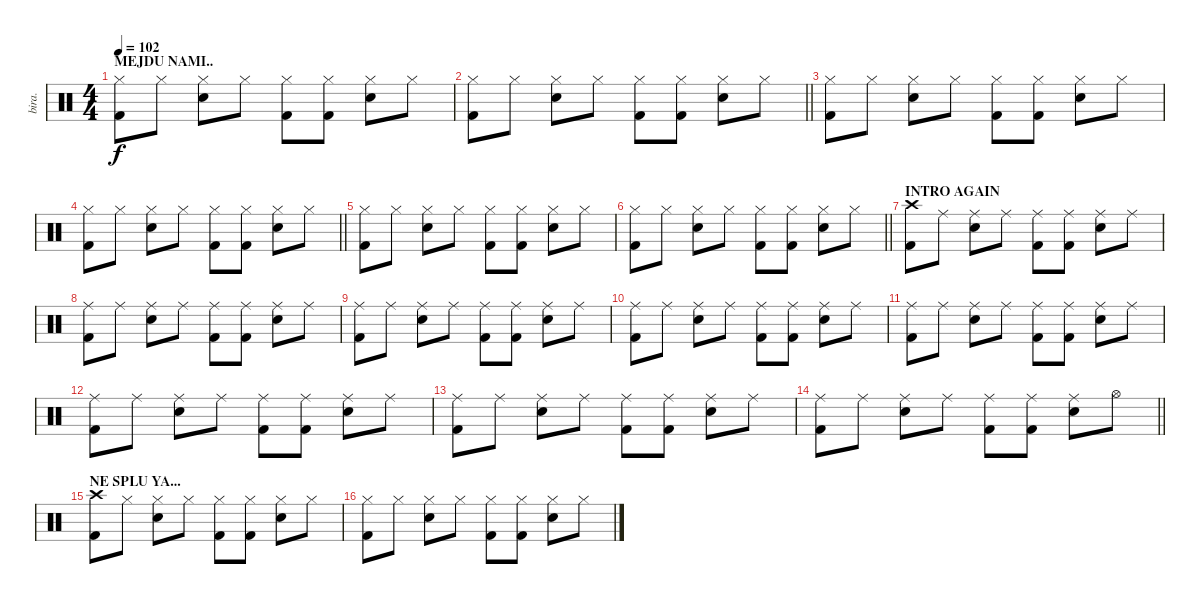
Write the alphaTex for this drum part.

\track ("bira." "bira.") {instrument percussion}
\staff {score}
\articulation defaults
\ts (4 4)
\section ("" "MEJDU NAMI..")
\tempo 102
\clef neutral
\ks c
("Hi-Hat (closed)" "Kick (hit) 2").8{dy f} "Hi-Hat (closed)".8 ("Hi-Hat (closed)" "Electric Snare (hit)").8 "Hi-Hat (closed)".8 ("Hi-Hat (closed)" "Kick (hit) 2").8 ("Hi-Hat (closed)" "Kick (hit) 2").8 ("Hi-Hat (closed)" "Electric Snare (hit)").8 "Hi-Hat (closed)".8 |
\barLineRight lightlight
("Hi-Hat (closed)" "Kick (hit) 2").8 "Hi-Hat (closed)".8 ("Hi-Hat (closed)" "Electric Snare (hit)").8 "Hi-Hat (closed)".8 ("Hi-Hat (closed)" "Kick (hit) 2").8 ("Hi-Hat (closed)" "Kick (hit) 2").8 ("Hi-Hat (closed)" "Electric Snare (hit)").8 "Hi-Hat (closed)".8 |
("Hi-Hat (closed)" "Kick (hit) 2").8 "Hi-Hat (closed)".8 ("Hi-Hat (closed)" "Electric Snare (hit)").8 "Hi-Hat (closed)".8 ("Hi-Hat (closed)" "Kick (hit) 2").8 ("Hi-Hat (closed)" "Kick (hit) 2").8 ("Hi-Hat (closed)" "Electric Snare (hit)").8 "Hi-Hat (closed)".8 |
\barLineRight lightlight
("Hi-Hat (closed)" "Kick (hit) 2").8 "Hi-Hat (closed)".8 ("Hi-Hat (closed)" "Electric Snare (hit)").8 "Hi-Hat (closed)".8 ("Hi-Hat (closed)" "Kick (hit) 2").8 ("Hi-Hat (closed)" "Kick (hit) 2").8 ("Hi-Hat (closed)" "Electric Snare (hit)").8 "Hi-Hat (closed)".8 |
("Hi-Hat (closed)" "Kick (hit) 2").8 "Hi-Hat (closed)".8 ("Hi-Hat (closed)" "Electric Snare (hit)").8 "Hi-Hat (closed)".8 ("Hi-Hat (closed)" "Kick (hit) 2").8 ("Hi-Hat (closed)" "Kick (hit) 2").8 ("Hi-Hat (closed)" "Electric Snare (hit)").8 "Hi-Hat (closed)".8 |
\barLineRight lightlight
("Hi-Hat (closed)" "Kick (hit) 2").8 "Hi-Hat (closed)".8 ("Hi-Hat (closed)" "Electric Snare (hit)").8 "Hi-Hat (closed)".8 ("Hi-Hat (closed)" "Kick (hit) 2").8 ("Hi-Hat (closed)" "Kick (hit) 2").8 ("Hi-Hat (closed)" "Electric Snare (hit)").8 "Hi-Hat (closed)".8 |
\section ("" "INTRO AGAIN")
("Crash high (hit)" "Kick (hit) 2").8 "Ride (middle)".8 ("Ride (middle)" "Electric Snare (hit)").8 "Ride (middle)".8 ("Ride (middle)" "Kick (hit) 2").8 ("Ride (middle)" "Kick (hit) 2").8 ("Ride (middle)" "Electric Snare (hit)").8 "Ride (middle)".8 |
("Ride (middle)" "Kick (hit) 2").8 "Ride (middle)".8 ("Ride (middle)" "Electric Snare (hit)").8 "Ride (middle)".8 ("Ride (middle)" "Kick (hit) 2").8 ("Ride (middle)" "Kick (hit) 2").8 ("Ride (middle)" "Electric Snare (hit)").8 "Ride (middle)".8 |
("Ride (middle)" "Kick (hit) 2").8 "Ride (middle)".8 ("Ride (middle)" "Electric Snare (hit)").8 "Ride (middle)".8 ("Ride (middle)" "Kick (hit) 2").8 ("Ride (middle)" "Kick (hit) 2").8 ("Ride (middle)" "Electric Snare (hit)").8 "Ride (middle)".8 |
("Ride (middle)" "Kick (hit) 2").8 "Ride (middle)".8 ("Ride (middle)" "Electric Snare (hit)").8 "Ride (middle)".8 ("Ride (middle)" "Kick (hit) 2").8 ("Ride (middle)" "Kick (hit) 2").8 ("Ride (middle)" "Electric Snare (hit)").8 "Ride (middle)".8 |
("Ride (middle)" "Kick (hit) 2").8 "Ride (middle)".8 ("Ride (middle)" "Electric Snare (hit)").8 "Ride (middle)".8 ("Ride (middle)" "Kick (hit) 2").8 ("Ride (middle)" "Kick (hit) 2").8 ("Ride (middle)" "Electric Snare (hit)").8 "Ride (middle)".8 |
("Ride (middle)" "Kick (hit) 2").8 "Ride (middle)".8 ("Ride (middle)" "Electric Snare (hit)").8 "Ride (middle)".8 ("Ride (middle)" "Kick (hit) 2").8 ("Ride (middle)" "Kick (hit) 2").8 ("Ride (middle)" "Electric Snare (hit)").8 "Ride (middle)".8 |
("Ride (middle)" "Kick (hit) 2").8 "Ride (middle)".8 ("Ride (middle)" "Electric Snare (hit)").8 "Ride (middle)".8 ("Ride (middle)" "Kick (hit) 2").8 ("Ride (middle)" "Kick (hit) 2").8 ("Ride (middle)" "Electric Snare (hit)").8 "Ride (middle)".8 |
\barLineRight lightlight
("Ride (middle)" "Kick (hit) 2").8 "Ride (middle)".8 ("Ride (middle)" "Electric Snare (hit)").8 "Ride (middle)".8 ("Ride (middle)" "Kick (hit) 2").8 ("Ride (middle)" "Kick (hit) 2").8 ("Ride (middle)" "Electric Snare (hit)").8 "Hi-Hat (open)".8 |
\section ("" "NE SPLU YA...")
("Crash high (hit)" "Kick (hit) 2").8 "Hi-Hat (closed)".8 ("Hi-Hat (closed)" "Electric Snare (hit)").8 "Hi-Hat (closed)".8 ("Hi-Hat (closed)" "Kick (hit) 2").8 ("Hi-Hat (closed)" "Kick (hit) 2").8 ("Hi-Hat (closed)" "Electric Snare (hit)").8 "Hi-Hat (closed)".8 |
("Hi-Hat (closed)" "Kick (hit) 2").8 "Hi-Hat (closed)".8 ("Hi-Hat (closed)" "Electric Snare (hit)").8 "Hi-Hat (closed)".8 ("Hi-Hat (closed)" "Kick (hit) 2").8 ("Hi-Hat (closed)" "Kick (hit) 2").8 ("Hi-Hat (closed)" "Electric Snare (hit)").8 "Hi-Hat (closed)".8
